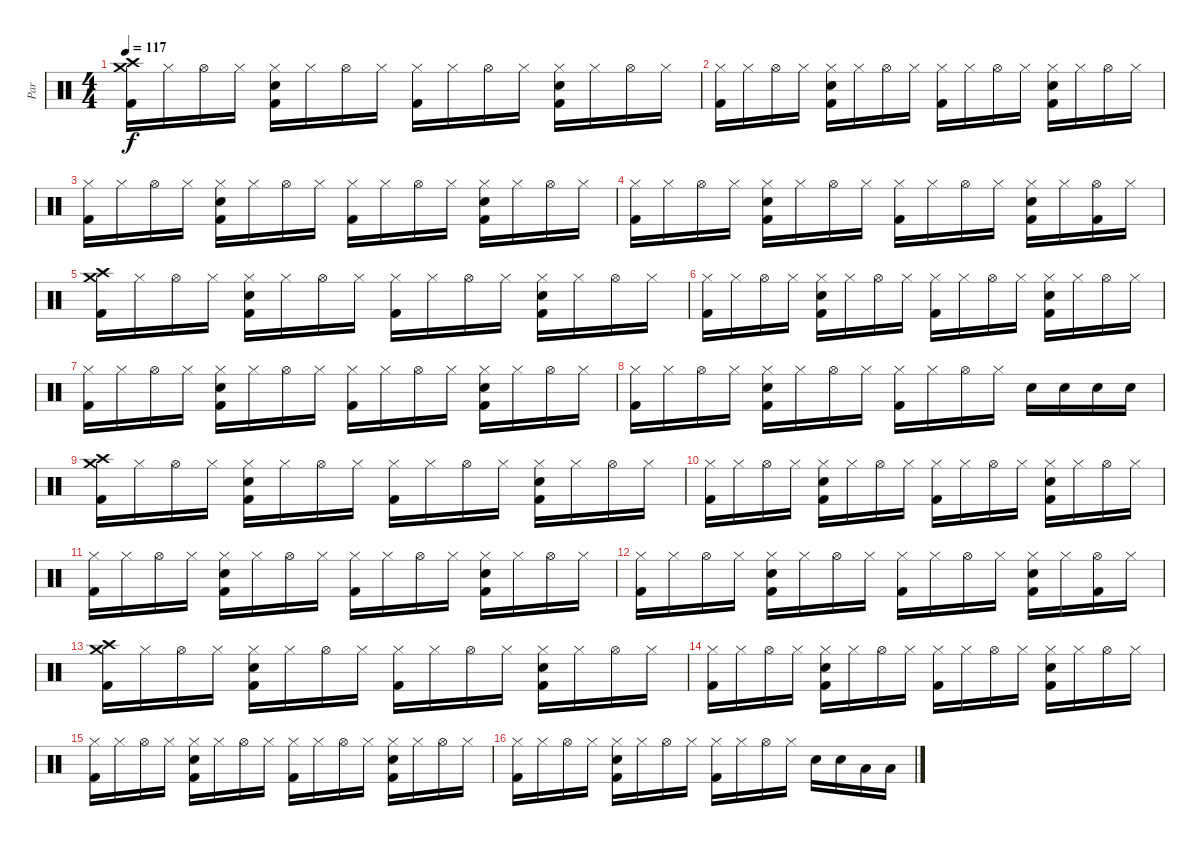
\track ("Par" "Par") {instrument percussion}
\staff {score}
\articulation defaults
\ts (4 4)
\tempo 117
\clef neutral
\ks c
("Crash medium (hit)" "Crash high (hit)" "Kick (hit) 2").16{dy f} "Hi-Hat (closed)".16 "Hi-Hat (open)".16 "Hi-Hat (closed)".16 ("Hi-Hat (closed)" "Snare (hit) 2" "Kick (hit) 2").16 "Hi-Hat (closed)".16 "Hi-Hat (open)".16 "Hi-Hat (closed)".16 ("Hi-Hat (closed)" "Kick (hit) 2").16 "Hi-Hat (closed)".16 "Hi-Hat (open)".16 "Hi-Hat (closed)".16 ("Hi-Hat (closed)" "Snare (hit) 2" "Kick (hit) 2").16 "Hi-Hat (closed)".16 "Hi-Hat (open)".16 "Hi-Hat (closed)".16 |
("Hi-Hat (closed)" "Kick (hit) 2").16 "Hi-Hat (closed)".16 "Hi-Hat (open)".16 "Hi-Hat (closed)".16 ("Hi-Hat (closed)" "Snare (hit) 2" "Kick (hit) 2").16 "Hi-Hat (closed)".16 "Hi-Hat (open)".16 "Hi-Hat (closed)".16 ("Hi-Hat (closed)" "Kick (hit) 2").16 "Hi-Hat (closed)".16 "Hi-Hat (open)".16 "Hi-Hat (closed)".16 ("Hi-Hat (closed)" "Snare (hit) 2" "Kick (hit) 2").16 "Hi-Hat (closed)".16 "Hi-Hat (open)".16 "Hi-Hat (closed)".16 |
("Hi-Hat (closed)" "Kick (hit) 2").16 "Hi-Hat (closed)".16 "Hi-Hat (open)".16 "Hi-Hat (closed)".16 ("Hi-Hat (closed)" "Snare (hit) 2" "Kick (hit) 2").16 "Hi-Hat (closed)".16 "Hi-Hat (open)".16 "Hi-Hat (closed)".16 ("Hi-Hat (closed)" "Kick (hit) 2").16 "Hi-Hat (closed)".16 "Hi-Hat (open)".16 "Hi-Hat (closed)".16 ("Hi-Hat (closed)" "Snare (hit) 2" "Kick (hit) 2").16 "Hi-Hat (closed)".16 "Hi-Hat (open)".16 "Hi-Hat (closed)".16 |
("Hi-Hat (closed)" "Kick (hit) 2").16 "Hi-Hat (closed)".16 "Hi-Hat (open)".16 "Hi-Hat (closed)".16 ("Hi-Hat (closed)" "Snare (hit) 2" "Kick (hit) 2").16 "Hi-Hat (closed)".16 "Hi-Hat (open)".16 "Hi-Hat (closed)".16 ("Hi-Hat (closed)" "Kick (hit) 2").16 "Hi-Hat (closed)".16 "Hi-Hat (open)".16 "Hi-Hat (closed)".16 ("Hi-Hat (closed)" "Snare (hit) 2" "Kick (hit) 2").16 "Hi-Hat (closed)".16 ("Hi-Hat (open)" "Kick (hit) 2").16 "Hi-Hat (closed)".16 |
("Crash medium (hit)" "Crash high (hit)" "Kick (hit) 2").16 "Hi-Hat (closed)".16 "Hi-Hat (open)".16 "Hi-Hat (closed)".16 ("Hi-Hat (closed)" "Snare (hit) 2" "Kick (hit) 2").16 "Hi-Hat (closed)".16 "Hi-Hat (open)".16 "Hi-Hat (closed)".16 ("Hi-Hat (closed)" "Kick (hit) 2").16 "Hi-Hat (closed)".16 "Hi-Hat (open)".16 "Hi-Hat (closed)".16 ("Hi-Hat (closed)" "Snare (hit) 2" "Kick (hit) 2").16 "Hi-Hat (closed)".16 "Hi-Hat (open)".16 "Hi-Hat (closed)".16 |
("Hi-Hat (closed)" "Kick (hit) 2").16 "Hi-Hat (closed)".16 "Hi-Hat (open)".16 "Hi-Hat (closed)".16 ("Hi-Hat (closed)" "Snare (hit) 2" "Kick (hit) 2").16 "Hi-Hat (closed)".16 "Hi-Hat (open)".16 "Hi-Hat (closed)".16 ("Hi-Hat (closed)" "Kick (hit) 2").16 "Hi-Hat (closed)".16 "Hi-Hat (open)".16 "Hi-Hat (closed)".16 ("Hi-Hat (closed)" "Snare (hit) 2" "Kick (hit) 2").16 "Hi-Hat (closed)".16 "Hi-Hat (open)".16 "Hi-Hat (closed)".16 |
("Hi-Hat (closed)" "Kick (hit) 2").16 "Hi-Hat (closed)".16 "Hi-Hat (open)".16 "Hi-Hat (closed)".16 ("Hi-Hat (closed)" "Snare (hit) 2" "Kick (hit) 2").16 "Hi-Hat (closed)".16 "Hi-Hat (open)".16 "Hi-Hat (closed)".16 ("Hi-Hat (closed)" "Kick (hit) 2").16 "Hi-Hat (closed)".16 "Hi-Hat (open)".16 "Hi-Hat (closed)".16 ("Hi-Hat (closed)" "Snare (hit) 2" "Kick (hit) 2").16 "Hi-Hat (closed)".16 "Hi-Hat (open)".16 "Hi-Hat (closed)".16 |
("Hi-Hat (closed)" "Kick (hit) 2").16 "Hi-Hat (closed)".16 "Hi-Hat (open)".16 "Hi-Hat (closed)".16 ("Hi-Hat (closed)" "Snare (hit) 2" "Kick (hit) 2").16 "Hi-Hat (closed)".16 "Hi-Hat (open)".16 "Hi-Hat (closed)".16 ("Hi-Hat (closed)" "Kick (hit) 2").16 "Hi-Hat (closed)".16 "Hi-Hat (open)".16 "Hi-Hat (closed)".16 "Snare (hit) 2".16 "Snare (hit) 2".16 "Snare (hit) 2".16 "Snare (hit) 2".16 |
("Crash medium (hit)" "Crash high (hit)" "Kick (hit) 2").16 "Hi-Hat (closed)".16 "Hi-Hat (open)".16 "Hi-Hat (closed)".16 ("Hi-Hat (closed)" "Snare (hit) 2" "Kick (hit) 2").16 "Hi-Hat (closed)".16 "Hi-Hat (open)".16 "Hi-Hat (closed)".16 ("Hi-Hat (closed)" "Kick (hit) 2").16 "Hi-Hat (closed)".16 "Hi-Hat (open)".16 "Hi-Hat (closed)".16 ("Hi-Hat (closed)" "Snare (hit) 2" "Kick (hit) 2").16 "Hi-Hat (closed)".16 "Hi-Hat (open)".16 "Hi-Hat (closed)".16 |
("Hi-Hat (closed)" "Kick (hit) 2").16 "Hi-Hat (closed)".16 "Hi-Hat (open)".16 "Hi-Hat (closed)".16 ("Hi-Hat (closed)" "Snare (hit) 2" "Kick (hit) 2").16 "Hi-Hat (closed)".16 "Hi-Hat (open)".16 "Hi-Hat (closed)".16 ("Hi-Hat (closed)" "Kick (hit) 2").16 "Hi-Hat (closed)".16 "Hi-Hat (open)".16 "Hi-Hat (closed)".16 ("Hi-Hat (closed)" "Snare (hit) 2" "Kick (hit) 2").16 "Hi-Hat (closed)".16 "Hi-Hat (open)".16 "Hi-Hat (closed)".16 |
("Hi-Hat (closed)" "Kick (hit) 2").16 "Hi-Hat (closed)".16 "Hi-Hat (open)".16 "Hi-Hat (closed)".16 ("Hi-Hat (closed)" "Snare (hit) 2" "Kick (hit) 2").16 "Hi-Hat (closed)".16 "Hi-Hat (open)".16 "Hi-Hat (closed)".16 ("Hi-Hat (closed)" "Kick (hit) 2").16 "Hi-Hat (closed)".16 "Hi-Hat (open)".16 "Hi-Hat (closed)".16 ("Hi-Hat (closed)" "Snare (hit) 2" "Kick (hit) 2").16 "Hi-Hat (closed)".16 "Hi-Hat (open)".16 "Hi-Hat (closed)".16 |
("Hi-Hat (closed)" "Kick (hit) 2").16 "Hi-Hat (closed)".16 "Hi-Hat (open)".16 "Hi-Hat (closed)".16 ("Hi-Hat (closed)" "Snare (hit) 2" "Kick (hit) 2").16 "Hi-Hat (closed)".16 "Hi-Hat (open)".16 "Hi-Hat (closed)".16 ("Hi-Hat (closed)" "Kick (hit) 2").16 "Hi-Hat (closed)".16 "Hi-Hat (open)".16 "Hi-Hat (closed)".16 ("Hi-Hat (closed)" "Snare (hit) 2" "Kick (hit) 2").16 "Hi-Hat (closed)".16 ("Hi-Hat (open)" "Kick (hit) 2").16 "Hi-Hat (closed)".16 |
("Crash medium (hit)" "Crash high (hit)" "Kick (hit) 2").16 "Hi-Hat (closed)".16 "Hi-Hat (open)".16 "Hi-Hat (closed)".16 ("Hi-Hat (closed)" "Snare (hit) 2" "Kick (hit) 2").16 "Hi-Hat (closed)".16 "Hi-Hat (open)".16 "Hi-Hat (closed)".16 ("Hi-Hat (closed)" "Kick (hit) 2").16 "Hi-Hat (closed)".16 "Hi-Hat (open)".16 "Hi-Hat (closed)".16 ("Hi-Hat (closed)" "Snare (hit) 2" "Kick (hit) 2").16 "Hi-Hat (closed)".16 "Hi-Hat (open)".16 "Hi-Hat (closed)".16 |
("Hi-Hat (closed)" "Kick (hit) 2").16 "Hi-Hat (closed)".16 "Hi-Hat (open)".16 "Hi-Hat (closed)".16 ("Hi-Hat (closed)" "Snare (hit) 2" "Kick (hit) 2").16 "Hi-Hat (closed)".16 "Hi-Hat (open)".16 "Hi-Hat (closed)".16 ("Hi-Hat (closed)" "Kick (hit) 2").16 "Hi-Hat (closed)".16 "Hi-Hat (open)".16 "Hi-Hat (closed)".16 ("Hi-Hat (closed)" "Snare (hit) 2" "Kick (hit) 2").16 "Hi-Hat (closed)".16 "Hi-Hat (open)".16 "Hi-Hat (closed)".16 |
("Hi-Hat (closed)" "Kick (hit) 2").16 "Hi-Hat (closed)".16 "Hi-Hat (open)".16 "Hi-Hat (closed)".16 ("Hi-Hat (closed)" "Snare (hit) 2" "Kick (hit) 2").16 "Hi-Hat (closed)".16 "Hi-Hat (open)".16 "Hi-Hat (closed)".16 ("Hi-Hat (closed)" "Kick (hit) 2").16 "Hi-Hat (closed)".16 "Hi-Hat (open)".16 "Hi-Hat (closed)".16 ("Hi-Hat (closed)" "Snare (hit) 2" "Kick (hit) 2").16 "Hi-Hat (closed)".16 "Hi-Hat (open)".16 "Hi-Hat (closed)".16 |
("Hi-Hat (closed)" "Kick (hit) 2").16 "Hi-Hat (closed)".16 "Hi-Hat (open)".16 "Hi-Hat (closed)".16 ("Hi-Hat (closed)" "Snare (hit) 2" "Kick (hit) 2").16 "Hi-Hat (closed)".16 "Hi-Hat (open)".16 "Hi-Hat (closed)".16 ("Hi-Hat (closed)" "Kick (hit) 2").16 "Hi-Hat (closed)".16 "Hi-Hat (open)".16 "Hi-Hat (closed)".16 "Snare (hit) 2".16 "Snare (hit) 2".16 "Low Floor Tom (hit)".16 "Low Floor Tom (hit)".16
